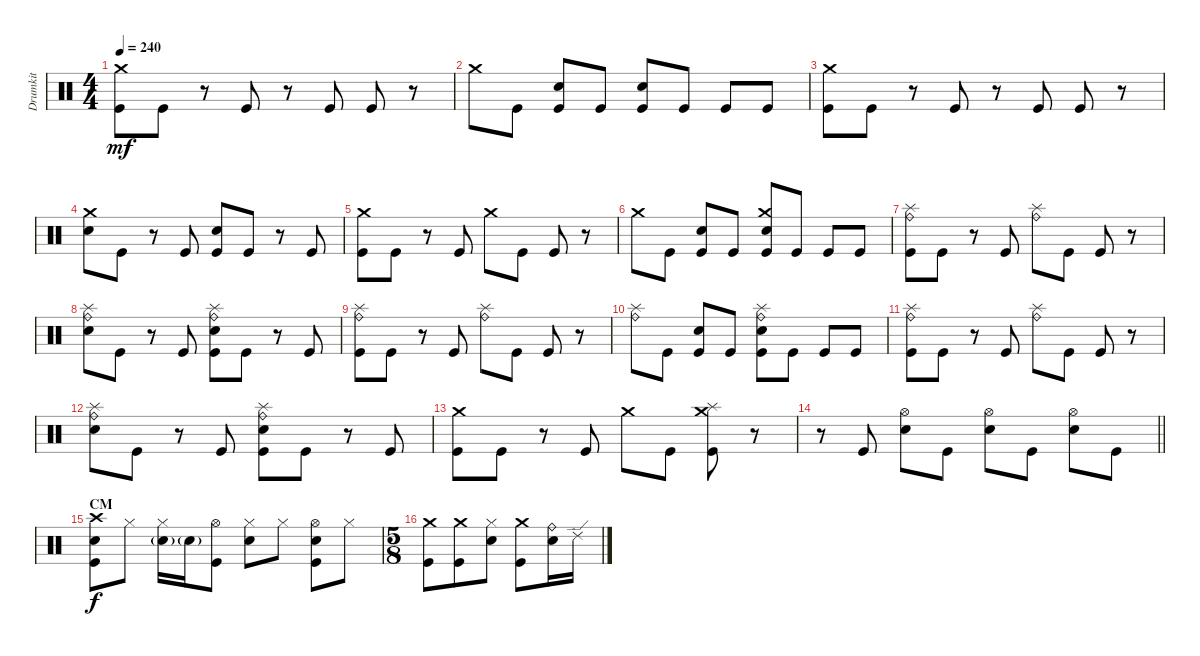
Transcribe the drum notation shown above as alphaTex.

\track ("Drumkit" "Drumkit") {instrument percussion}
\staff {score}
\articulation defaults
\ts (4 4)
\tempo 240
\clef neutral
\ks c
("Kick (hit)" "Crash medium (hit)").8{dy mf} "Kick (hit)".8 r.8 "Kick (hit)".8 r.8 "Kick (hit)".8 "Kick (hit)".8 r.8 |
"Crash medium (hit)".8 "Kick (hit)".8 ("Snare (hit) 2" "Kick (hit)").8 "Kick (hit)".8 ("Snare (hit) 2" "Kick (hit)").8 "Kick (hit)".8 "Kick (hit)".8 "Kick (hit)".8 |
("Kick (hit)" "Crash medium (hit)").8 "Kick (hit)".8 r.8 "Kick (hit)".8 r.8 "Kick (hit)".8 "Kick (hit)".8 r.8 |
("Snare (hit) 2" "Crash medium (hit)").8 "Kick (hit)".8 r.8 "Kick (hit)".8 ("Snare (hit) 2" "Kick (hit)").8 "Kick (hit)".8 r.8 "Kick (hit)".8 |
("Kick (hit)" "Crash medium (hit)").8 "Kick (hit)".8 r.8 "Kick (hit)".8 "Crash medium (hit)".8 "Kick (hit)".8 "Kick (hit)".8 r.8 |
"Crash medium (hit)".8 "Kick (hit)".8 ("Snare (hit) 2" "Kick (hit)").8 "Kick (hit)".8 ("Snare (hit) 2" "Kick (hit)" "Crash medium (hit)").8 "Kick (hit)".8 "Kick (hit)".8 "Kick (hit)".8 |
("Kick (hit)" "Ride (bell)" "Splash (hit)").8 "Kick (hit)".8 r.8 "Kick (hit)".8 ("Ride (bell)" "Splash (hit)").8 "Kick (hit)".8 "Kick (hit)".8 r.8 |
("Snare (hit) 2" "Ride (bell)" "Splash (hit)").8 "Kick (hit)".8 r.8 "Kick (hit)".8 ("Snare (hit) 2" "Kick (hit)" "Splash (hit)" "Ride (bell)").8 "Kick (hit)".8 r.8 "Kick (hit)".8 |
("Kick (hit)" "Ride (bell)" "Splash (hit)").8 "Kick (hit)".8 r.8 "Kick (hit)".8 ("Splash (hit)" "Ride (bell)").8 "Kick (hit)".8 "Kick (hit)".8 r.8 |
("Ride (bell)" "Splash (hit)").8 "Kick (hit)".8 ("Snare (hit) 2" "Kick (hit)").8 "Kick (hit)".8 ("Snare (hit) 2" "Kick (hit)" "Splash (hit)" "Ride (bell)").8 "Kick (hit)".8 "Kick (hit)".8 "Kick (hit)".8 |
("Kick (hit)" "Ride (bell)" "Splash (hit)").8 "Kick (hit)".8 r.8 "Kick (hit)".8 ("Splash (hit)" "Ride (bell)").8 "Kick (hit)".8 "Kick (hit)".8 r.8 |
("Snare (hit) 2" "Ride (bell)" "Splash (hit)").8 "Kick (hit)".8 r.8 "Kick (hit)".8 ("Snare (hit) 2" "Kick (hit)" "Ride (bell)" "Splash (hit)").8 "Kick (hit)".8 r.8 "Kick (hit)".8 |
("Kick (hit)" "Crash medium (hit)").8 "Kick (hit)".8 r.8 "Kick (hit)".8 "Crash medium (hit)".8 "Kick (hit)".8 ("Kick (hit)" "Splash (hit)" "Crash medium (hit)").8 r.8 |
\barLineRight lightlight
r.8 "Kick (hit)".8 ("Snare (hit) 2" "Hi-Hat (open)").8 "Kick (hit)".8 ("Snare (hit) 2" "Hi-Hat (open)").8 "Kick (hit)".8 ("Snare (hit) 2" "Hi-Hat (open)").8 "Kick (hit)".8 |
\section ("" "CM")
("Crash high (hit)" "Snare (hit) 2" "Kick (hit)").8{dy f} "Hi-Hat (closed)".8 ("Hi-Hat (closed)" "Snare (hit) 2"{g}).16 "Snare (hit) 2"{g}.16 ("Hi-Hat (open)" "Kick (hit)").8 ("Hi-Hat (closed)" "Snare (hit) 2").8 "Hi-Hat (closed)".8 ("Hi-Hat (open)" "Snare (hit) 2" "Kick (hit)").8 "Hi-Hat (closed)".8 |
\ts (5 8)
("Crash medium (hit)" "Kick (hit)").8 ("Crash medium (hit)" "Kick (hit)").8 ("Hi-Hat (closed)" "Snare (hit) 2").8 ("Crash medium (hit)" "Kick (hit)").8 ("Ride (bell)" "Snare (hit) 2").16 "Ride (edge) 2".16
